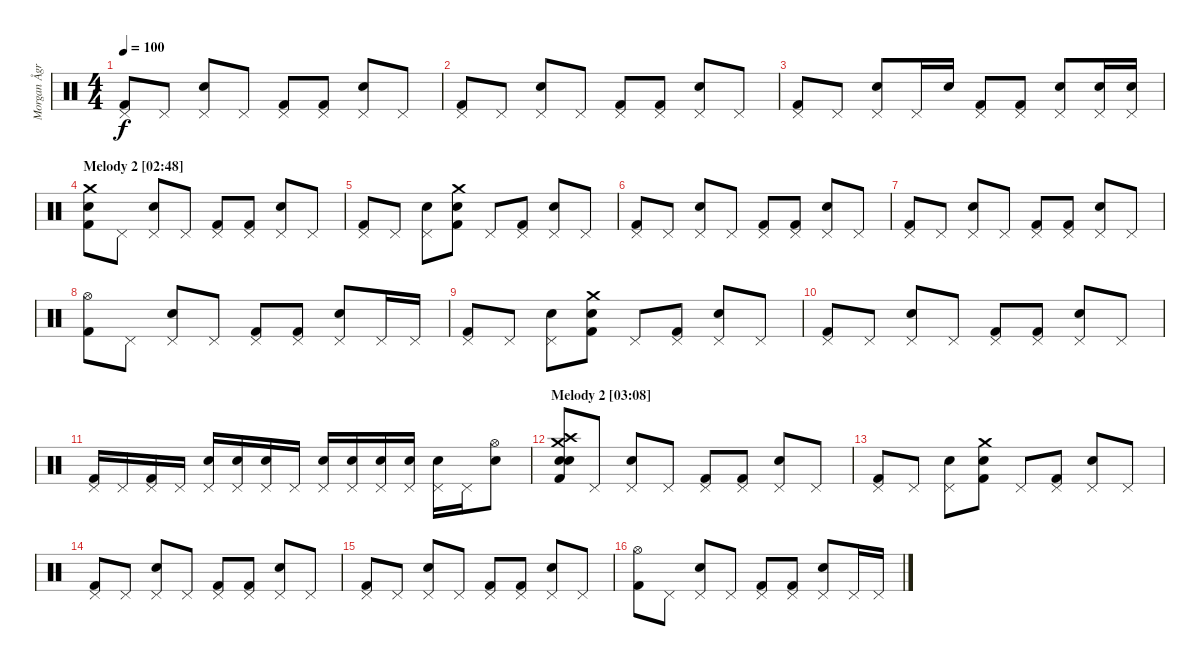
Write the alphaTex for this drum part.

\track ("Morgan Ågren" "Morgan Ågr") {instrument percussion}
\staff {score}
\articulation defaults
\ts (4 4)
\tempo 100
\clef neutral
\ks c
("Pedal Hi-Hat (hit)" "Kick (hit) 2").8{dy f} "Pedal Hi-Hat (hit)".8 ("Pedal Hi-Hat (hit)" "Electric Snare (hit)").8 "Pedal Hi-Hat (hit)".8 ("Pedal Hi-Hat (hit)" "Kick (hit) 2").8 ("Pedal Hi-Hat (hit)" "Kick (hit) 2").8 ("Pedal Hi-Hat (hit)" "Electric Snare (hit)").8 "Pedal Hi-Hat (hit)".8 |
("Pedal Hi-Hat (hit)" "Kick (hit) 2").8 "Pedal Hi-Hat (hit)".8 ("Pedal Hi-Hat (hit)" "Electric Snare (hit)").8 "Pedal Hi-Hat (hit)".8 ("Pedal Hi-Hat (hit)" "Kick (hit) 2").8 ("Pedal Hi-Hat (hit)" "Kick (hit) 2").8 ("Pedal Hi-Hat (hit)" "Electric Snare (hit)").8 "Pedal Hi-Hat (hit)".8 |
("Pedal Hi-Hat (hit)" "Kick (hit) 2").8 "Pedal Hi-Hat (hit)".8 ("Pedal Hi-Hat (hit)" "Electric Snare (hit)").8 "Pedal Hi-Hat (hit)".16 "Electric Snare (hit)".16 ("Pedal Hi-Hat (hit)" "Kick (hit) 2").8 ("Pedal Hi-Hat (hit)" "Kick (hit) 2").8 ("Pedal Hi-Hat (hit)" "Electric Snare (hit)").8 ("Pedal Hi-Hat (hit)" "Electric Snare (hit)").16 ("Pedal Hi-Hat (hit)" "Electric Snare (hit)").16 |
\section ("" "Melody 2 [02:48]")
("Crash medium (hit)" "Electric Snare (hit)" "Kick (hit) 2").8 "Pedal Hi-Hat (hit)".8 ("Pedal Hi-Hat (hit)" "Electric Snare (hit)").8 "Pedal Hi-Hat (hit)".8 ("Pedal Hi-Hat (hit)" "Kick (hit) 2").8 ("Pedal Hi-Hat (hit)" "Kick (hit) 2").8 ("Pedal Hi-Hat (hit)" "Electric Snare (hit)").8 "Pedal Hi-Hat (hit)".8 |
("Pedal Hi-Hat (hit)" "Kick (hit) 2").8 "Pedal Hi-Hat (hit)".8 ("Pedal Hi-Hat (hit)" "Electric Snare (hit)").8 ("Crash medium (hit)" "Electric Snare (hit)" "Kick (hit) 2").8 "Pedal Hi-Hat (hit)".8 ("Pedal Hi-Hat (hit)" "Kick (hit) 2").8 ("Pedal Hi-Hat (hit)" "Electric Snare (hit)").8 "Pedal Hi-Hat (hit)".8 |
("Pedal Hi-Hat (hit)" "Kick (hit) 2").8 "Pedal Hi-Hat (hit)".8 ("Pedal Hi-Hat (hit)" "Electric Snare (hit)").8 "Pedal Hi-Hat (hit)".8 ("Pedal Hi-Hat (hit)" "Kick (hit) 2").8 ("Pedal Hi-Hat (hit)" "Kick (hit) 2").8 ("Pedal Hi-Hat (hit)" "Electric Snare (hit)").8 "Pedal Hi-Hat (hit)".8 |
("Pedal Hi-Hat (hit)" "Kick (hit) 2").8 "Pedal Hi-Hat (hit)".8 ("Pedal Hi-Hat (hit)" "Electric Snare (hit)").8 "Pedal Hi-Hat (hit)".8 ("Pedal Hi-Hat (hit)" "Kick (hit) 2").8 ("Pedal Hi-Hat (hit)" "Kick (hit) 2").8 ("Pedal Hi-Hat (hit)" "Electric Snare (hit)").8 "Pedal Hi-Hat (hit)".8 |
("Hi-Hat (open)" "Kick (hit) 2").8 "Pedal Hi-Hat (hit)".8 ("Pedal Hi-Hat (hit)" "Electric Snare (hit)").8 "Pedal Hi-Hat (hit)".8 ("Pedal Hi-Hat (hit)" "Kick (hit) 2").8 ("Pedal Hi-Hat (hit)" "Kick (hit) 2").8 ("Pedal Hi-Hat (hit)" "Electric Snare (hit)").8 "Pedal Hi-Hat (hit)".16 "Pedal Hi-Hat (hit)".16 |
("Pedal Hi-Hat (hit)" "Kick (hit) 2").8 "Pedal Hi-Hat (hit)".8 ("Pedal Hi-Hat (hit)" "Electric Snare (hit)").8 ("Crash medium (hit)" "Electric Snare (hit)" "Kick (hit) 2").8 "Pedal Hi-Hat (hit)".8 ("Pedal Hi-Hat (hit)" "Kick (hit) 2").8 ("Pedal Hi-Hat (hit)" "Electric Snare (hit)").8 "Pedal Hi-Hat (hit)".8 |
("Pedal Hi-Hat (hit)" "Kick (hit) 2").8 "Pedal Hi-Hat (hit)".8 ("Pedal Hi-Hat (hit)" "Electric Snare (hit)").8 "Pedal Hi-Hat (hit)".8 ("Pedal Hi-Hat (hit)" "Kick (hit) 2").8 ("Pedal Hi-Hat (hit)" "Kick (hit) 2").8 ("Pedal Hi-Hat (hit)" "Electric Snare (hit)").8 "Pedal Hi-Hat (hit)".8 |
("Pedal Hi-Hat (hit)" "Kick (hit) 2").16 "Pedal Hi-Hat (hit)".16 ("Pedal Hi-Hat (hit)" "Kick (hit) 2").16 "Pedal Hi-Hat (hit)".16 ("Pedal Hi-Hat (hit)" "Electric Snare (hit)").16 ("Pedal Hi-Hat (hit)" "Electric Snare (hit)").16 ("Pedal Hi-Hat (hit)" "Electric Snare (hit)").16 "Pedal Hi-Hat (hit)".16 ("Pedal Hi-Hat (hit)" "Electric Snare (hit)").16 ("Pedal Hi-Hat (hit)" "Electric Snare (hit)").16 ("Pedal Hi-Hat (hit)" "Electric Snare (hit)").16 ("Pedal Hi-Hat (hit)" "Electric Snare (hit)").16 ("Pedal Hi-Hat (hit)" "Electric Snare (hit)").16 "Pedal Hi-Hat (hit)".16 ("Hi-Hat (open)" "Electric Snare (hit)").8 |
\section ("" "Melody 2 [03:08]")
("Crash medium (hit)" "Crash high (hit)" "Snare (hit) 2" "Electric Snare (hit)" "Kick (hit) 2").8 "Pedal Hi-Hat (hit)".8 ("Pedal Hi-Hat (hit)" "Electric Snare (hit)").8 "Pedal Hi-Hat (hit)".8 ("Pedal Hi-Hat (hit)" "Kick (hit) 2").8 ("Pedal Hi-Hat (hit)" "Kick (hit) 2").8 ("Pedal Hi-Hat (hit)" "Electric Snare (hit)").8 "Pedal Hi-Hat (hit)".8 |
("Pedal Hi-Hat (hit)" "Kick (hit) 2").8 "Pedal Hi-Hat (hit)".8 ("Pedal Hi-Hat (hit)" "Electric Snare (hit)").8 ("Crash medium (hit)" "Electric Snare (hit)" "Kick (hit) 2").8 "Pedal Hi-Hat (hit)".8 ("Pedal Hi-Hat (hit)" "Kick (hit) 2").8 ("Pedal Hi-Hat (hit)" "Electric Snare (hit)").8 "Pedal Hi-Hat (hit)".8 |
("Pedal Hi-Hat (hit)" "Kick (hit) 2").8 "Pedal Hi-Hat (hit)".8 ("Pedal Hi-Hat (hit)" "Electric Snare (hit)").8 "Pedal Hi-Hat (hit)".8 ("Pedal Hi-Hat (hit)" "Kick (hit) 2").8 ("Pedal Hi-Hat (hit)" "Kick (hit) 2").8 ("Pedal Hi-Hat (hit)" "Electric Snare (hit)").8 "Pedal Hi-Hat (hit)".8 |
("Pedal Hi-Hat (hit)" "Kick (hit) 2").8 "Pedal Hi-Hat (hit)".8 ("Pedal Hi-Hat (hit)" "Electric Snare (hit)").8 "Pedal Hi-Hat (hit)".8 ("Pedal Hi-Hat (hit)" "Kick (hit) 2").8 ("Pedal Hi-Hat (hit)" "Kick (hit) 2").8 ("Pedal Hi-Hat (hit)" "Electric Snare (hit)").8 "Pedal Hi-Hat (hit)".8 |
("Hi-Hat (open)" "Kick (hit) 2").8 "Pedal Hi-Hat (hit)".8 ("Pedal Hi-Hat (hit)" "Electric Snare (hit)").8 "Pedal Hi-Hat (hit)".8 ("Pedal Hi-Hat (hit)" "Kick (hit) 2").8 ("Pedal Hi-Hat (hit)" "Kick (hit) 2").8 ("Pedal Hi-Hat (hit)" "Electric Snare (hit)").8 "Pedal Hi-Hat (hit)".16 "Pedal Hi-Hat (hit)".16
